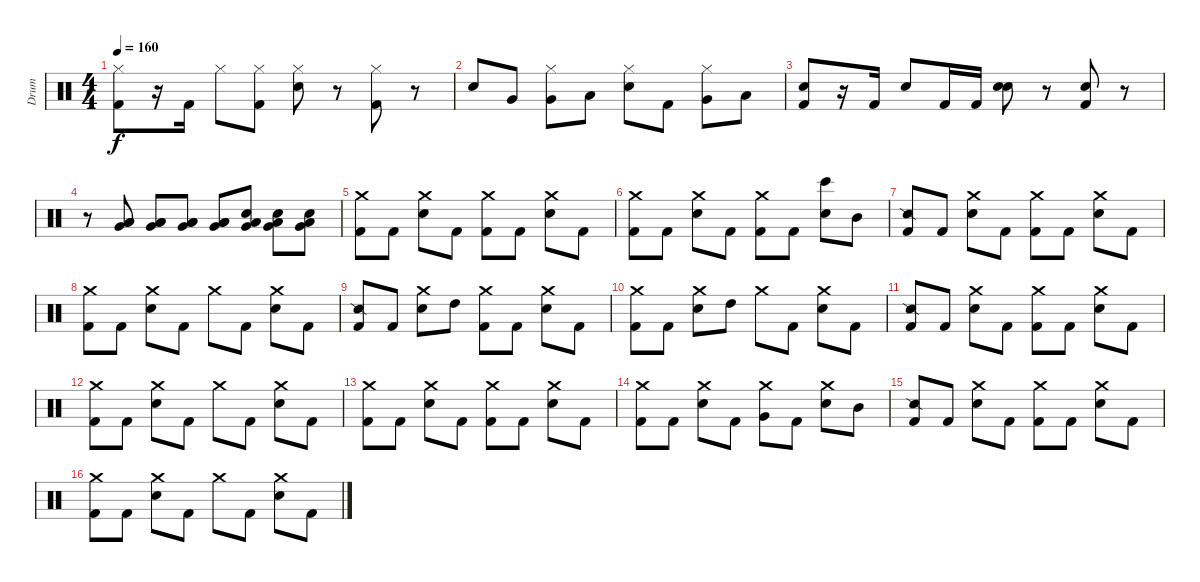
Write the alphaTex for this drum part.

\track ("Drum" "Drum") {instrument percussion}
\staff {score}
\articulation defaults
\ts (4 4)
\tempo 160
\clef neutral
\ks c
("Hi-Hat (closed)" "Kick (hit) 2").8{dy f} r.16 "Kick (hit) 2".16 "Hi-Hat (closed)".8 ("Hi-Hat (closed)" "Kick (hit) 2").8 ("Electric Snare (hit)" "Hi-Hat (closed)").8 r.8 ("Kick (hit) 2" "Hi-Hat (closed)").8 r.8 |
"Snare (hit)".8 "Very Low Tom (hit)".8 ("Very Low Tom (hit)" "Hi-Hat (closed)").8 "Low Floor Tom (hit)".8 ("Electric Snare (hit)" "Hi-Hat (closed)").8 "Kick (hit) 2".8 ("Hi-Hat (closed)" "Very Low Tom (hit)").8 "Low Floor Tom (hit)".8 |
("Kick (hit) 2" "Snare (hit)").8 r.16 "Kick (hit) 2".16 "Snare (hit)".8 "Kick (hit) 2".16 "Kick (hit) 2".16 ("Snare (hit)" "Electric Snare (hit)").8 r.8 ("Snare (hit)" "Kick (hit) 2").8 r.8 |
r.8 ("Low Tom (hit)" "Low Floor Tom (hit)" "Very Low Tom (hit)").8 ("Low Floor Tom (hit)" "Low Tom (hit)" "Very Low Tom (hit)").8 ("Low Floor Tom (hit)" "Low Tom (hit)" "Very Low Tom (hit)").8 ("Low Floor Tom (hit)" "Low Tom (hit)" "Very Low Tom (hit)").8 ("Low Floor Tom (hit)" "Electric Snare (hit)" "Very Low Tom (hit)").8 ("Low Floor Tom (hit)" "Electric Snare (hit)" "Very Low Tom (hit)").8 ("Low Floor Tom (hit)" "Electric Snare (hit)" "Very Low Tom (hit)").8 |
("Crash medium (hit)" "Kick (hit) 2").8 "Kick (hit) 2".8 ("Electric Snare (hit)" "Crash medium (hit)").8 "Kick (hit) 2".8 ("Crash medium (hit)" "Kick (hit) 2").8 "Kick (hit) 2".8 ("Crash medium (hit)" "Electric Snare (hit)").8 "Kick (hit) 2".8 |
("Crash medium (hit)" "Kick (hit) 2").8 "Kick (hit) 2".8 ("Electric Snare (hit)" "Crash medium (hit)").8 "Kick (hit) 2".8 ("Crash medium (hit)" "Kick (hit) 2").8 "Kick (hit) 2".8 ("Electric Snare (hit)" "Bongo High (hit)").8 "Mid Tom (hit)".8 |
("Snare (side stick) 2" "Kick (hit) 2").8 "Kick (hit) 2".8 ("Crash medium (hit)" "Electric Snare (hit)").8 "Kick (hit) 2".8 ("Crash medium (hit)" "Kick (hit) 2").8 "Kick (hit) 2".8 ("Electric Snare (hit)" "Crash medium (hit)").8 "Kick (hit) 2".8 |
("Kick (hit) 2" "Crash medium (hit)").8 "Kick (hit) 2".8 ("Electric Snare (hit)" "Crash medium (hit)").8 "Kick (hit) 2".8 "Crash medium (hit)".8 "Kick (hit) 2".8 ("Electric Snare (hit)" "Crash medium (hit)").8 "Kick (hit) 2".8 |
("Snare (side stick) 2" "Kick (hit) 2").8 "Kick (hit) 2".8 ("Electric Snare (hit)" "Crash medium (hit)").8 "High Tom (hit)".8 ("Crash medium (hit)" "Kick (hit) 2").8 "Kick (hit) 2".8 ("Crash medium (hit)" "Electric Snare (hit)").8 "Kick (hit) 2".8 |
("Crash medium (hit)" "Kick (hit) 2").8 "Kick (hit) 2".8 ("Electric Snare (hit)" "Crash medium (hit)").8 "High Tom (hit)".8 "Crash medium (hit)".8 "Kick (hit) 2".8 ("Electric Snare (hit)" "Crash medium (hit)").8 "Kick (hit) 2".8 |
("Kick (hit) 2" "Snare (side stick) 2").8 "Kick (hit) 2".8 ("Crash medium (hit)" "Electric Snare (hit)").8 "Kick (hit) 2".8 ("Crash medium (hit)" "Kick (hit) 2").8 "Kick (hit) 2".8 ("Electric Snare (hit)" "Crash medium (hit)").8 "Kick (hit) 2".8 |
("Crash medium (hit)" "Kick (hit) 2").8 "Kick (hit) 2".8 ("Electric Snare (hit)" "Crash medium (hit)").8 "Kick (hit) 2".8 "Crash medium (hit)".8 "Kick (hit) 2".8 ("Electric Snare (hit)" "Crash medium (hit)").8 "Kick (hit) 2".8 |
("Kick (hit) 2" "Crash medium (hit)").8 "Kick (hit) 2".8 ("Electric Snare (hit)" "Crash medium (hit)").8 "Kick (hit) 2".8 ("Crash medium (hit)" "Kick (hit) 2").8 "Kick (hit) 2".8 ("Crash medium (hit)" "Electric Snare (hit)").8 "Kick (hit) 2".8 |
("Crash medium (hit)" "Kick (hit) 2").8 "Kick (hit) 2".8 ("Crash medium (hit)" "Electric Snare (hit)").8 "Kick (hit) 2".8 ("Very Low Tom (hit)" "Crash medium (hit)").8 "Kick (hit) 2".8 ("Electric Snare (hit)" "Crash medium (hit)").8 "Mid Tom (hit)".8 |
("Kick (hit) 2" "Snare (side stick) 2").8 "Kick (hit) 2".8 ("Crash medium (hit)" "Electric Snare (hit)").8 "Kick (hit) 2".8 ("Crash medium (hit)" "Kick (hit) 2").8 "Kick (hit) 2".8 ("Electric Snare (hit)" "Crash medium (hit)").8 "Kick (hit) 2".8 |
("Kick (hit) 2" "Crash medium (hit)").8 "Kick (hit) 2".8 ("Crash medium (hit)" "Electric Snare (hit)").8 "Kick (hit) 2".8 "Crash medium (hit)".8 "Kick (hit) 2".8 ("Crash medium (hit)" "Electric Snare (hit)").8 "Kick (hit) 2".8
